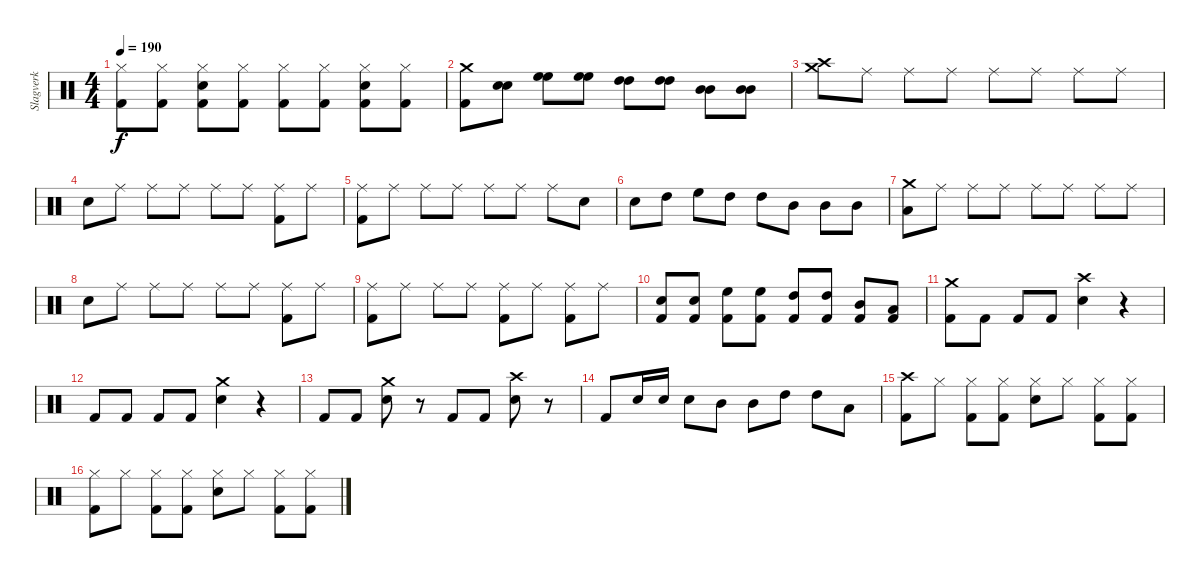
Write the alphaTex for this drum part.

\track ("Slagverk" "Slagverk") {instrument percussion}
\staff {score}
\articulation defaults
\ts (4 4)
\tempo 190
\clef neutral
\ks c
("Hi-Hat (closed)" "Kick (hit) 2").8{dy f} ("Hi-Hat (closed)" "Kick (hit) 2").8 ("Hi-Hat (closed)" "Snare (hit) 2" "Kick (hit) 2").8 ("Hi-Hat (closed)" "Kick (hit) 2").8 ("Hi-Hat (closed)" "Kick (hit) 2").8 ("Hi-Hat (closed)" "Kick (hit) 2").8 ("Hi-Hat (closed)" "Snare (hit) 2" "Kick (hit) 2").8 ("Hi-Hat (closed)" "Kick (hit) 2").8 |
("Crash medium (hit)" "Kick (hit) 2").8 ("Snare (hit) 2" "Snare (hit) 2").8 ("High Floor Tom (hit)" "High Floor Tom (hit)").8 ("High Floor Tom (hit)" "High Floor Tom (hit)").8 ("High Tom (hit)" "High Tom (hit)").8 ("High Tom (hit)" "High Tom (hit)").8 ("Mid Tom (hit)" "Mid Tom (hit)").8 ("Mid Tom (hit)" "Mid Tom (hit)").8 |
("Crash high (hit)" "Crash medium (hit)").8 "Ride (middle)".8 "Ride (middle)".8 "Ride (middle)".8 "Ride (middle)".8 "Ride (middle)".8 "Ride (middle)".8 "Ride (middle)".8 |
"Snare (hit) 2".8 "Ride (middle)".8 "Ride (middle)".8 "Ride (middle)".8 "Ride (middle)".8 "Ride (middle)".8 ("Ride (middle)" "Kick (hit) 2").8 "Ride (middle)".8 |
("Ride (middle)" "Kick (hit) 2").8 "Ride (middle)".8 "Ride (middle)".8 "Ride (middle)".8 "Ride (middle)".8 "Ride (middle)".8 "Ride (middle)".8 "Snare (hit) 2".8 |
"Snare (hit) 2".8 "High Tom (hit)".8 "High Floor Tom (hit)".8 "High Tom (hit)".8 "High Tom (hit)".8 "Mid Tom (hit)".8 "Mid Tom (hit)".8 "Mid Tom (hit)".8 |
("Crash medium (hit)" "Low Floor Tom (hit)").8 "Ride (middle)".8 "Ride (middle)".8 "Ride (middle)".8 "Ride (middle)".8 "Ride (middle)".8 "Ride (middle)".8 "Ride (middle)".8 |
"Snare (hit) 2".8 "Ride (middle)".8 "Ride (middle)".8 "Ride (middle)".8 "Ride (middle)".8 "Ride (middle)".8 ("Ride (middle)" "Kick (hit) 2").8 "Ride (middle)".8 |
("Ride (middle)" "Kick (hit) 2").8 "Ride (middle)".8 "Ride (middle)".8 "Ride (middle)".8 ("Ride (middle)" "Kick (hit) 2").8 "Ride (middle)".8 ("Ride (middle)" "Kick (hit) 2").8 "Ride (middle)".8 |
("Snare (hit) 2" "Kick (hit) 2").8 ("Snare (hit) 2" "Kick (hit) 2").8 ("High Floor Tom (hit)" "Kick (hit) 2").8 ("High Floor Tom (hit)" "Kick (hit) 2").8 ("High Tom (hit)" "Kick (hit) 2").8 ("High Tom (hit)" "Kick (hit) 2").8 ("Mid Tom (hit)" "Kick (hit) 2").8 ("Low Floor Tom (hit)" "Kick (hit) 2").8 |
("Crash medium (hit)" "Kick (hit) 2").8 "Kick (hit) 2".8 "Kick (hit) 2".8 "Kick (hit) 2".8 ("Crash high (hit)" "Snare (hit) 2").4 r.4 |
"Kick (hit) 2".8 "Kick (hit) 2".8 "Kick (hit) 2".8 "Kick (hit) 2".8 ("Crash medium (hit)" "Snare (hit) 2").4 r.4 |
"Kick (hit) 2".8 "Kick (hit) 2".8 ("Crash medium (hit)" "Snare (hit) 2").8 r.8 "Kick (hit) 2".8 "Kick (hit) 2".8 ("Crash high (hit)" "Snare (hit) 2").8 r.8 |
"Kick (hit) 2".8 "Snare (hit) 2".16 "Snare (hit) 2".16 "Snare (hit) 2".8 "Mid Tom (hit)".8 "Mid Tom (hit)".8 "High Tom (hit)".8 "High Tom (hit)".8 "Low Tom (hit)".8 |
("Crash high (hit)" "Kick (hit) 2").8 "Hi-Hat (closed)".8 ("Hi-Hat (closed)" "Kick (hit) 2").8 ("Hi-Hat (closed)" "Kick (hit) 2").8 ("Hi-Hat (closed)" "Snare (hit) 2").8 "Hi-Hat (closed)".8 ("Hi-Hat (closed)" "Kick (hit) 2").8 ("Hi-Hat (closed)" "Kick (hit) 2").8 |
("Hi-Hat (closed)" "Kick (hit) 2").8 "Hi-Hat (closed)".8 ("Hi-Hat (closed)" "Kick (hit) 2").8 ("Hi-Hat (closed)" "Kick (hit) 2").8 ("Hi-Hat (closed)" "Snare (hit) 2").8 "Hi-Hat (closed)".8 ("Hi-Hat (closed)" "Kick (hit) 2").8 ("Hi-Hat (closed)" "Kick (hit) 2").8
